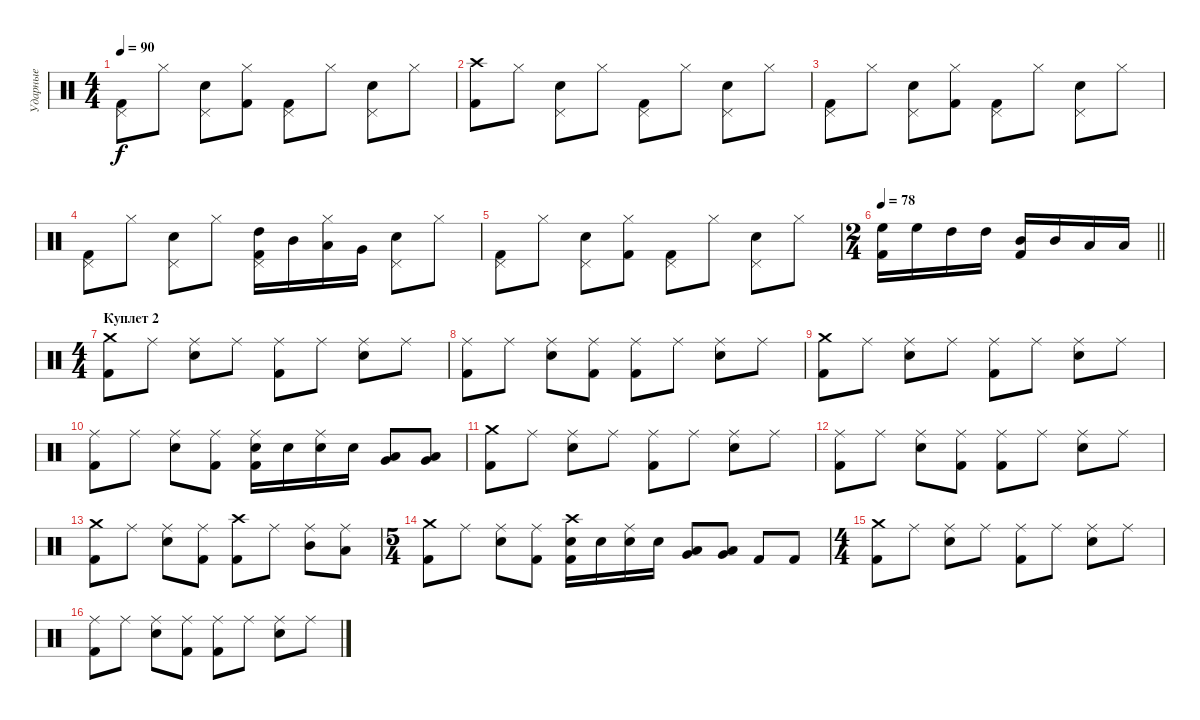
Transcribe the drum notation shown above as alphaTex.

\track ("Ударные" "Ударные") {instrument percussion}
\staff {score}
\articulation defaults
\ts (4 4)
\tempo 90
\clef neutral
\ks c
("Pedal Hi-Hat (hit)" "Kick (hit) 2").8{dy f} "Hi-Hat (closed)".8 ("Pedal Hi-Hat (hit)" "Snare (hit) 2").8 ("Hi-Hat (closed)" "Kick (hit) 2").8 ("Pedal Hi-Hat (hit)" "Kick (hit) 2").8 "Hi-Hat (closed)".8 ("Pedal Hi-Hat (hit)" "Snare (hit) 2").8 "Hi-Hat (closed)".8 |
("Crash high (hit)" "Kick (hit) 2").8 "Hi-Hat (closed)".8 ("Pedal Hi-Hat (hit)" "Snare (hit) 2").8 "Hi-Hat (closed)".8 ("Pedal Hi-Hat (hit)" "Kick (hit) 2").8 "Hi-Hat (closed)".8 ("Pedal Hi-Hat (hit)" "Snare (hit) 2").8 "Hi-Hat (closed)".8 |
("Pedal Hi-Hat (hit)" "Kick (hit) 2").8 "Hi-Hat (closed)".8 ("Pedal Hi-Hat (hit)" "Snare (hit) 2").8 ("Hi-Hat (closed)" "Kick (hit) 2").8 ("Pedal Hi-Hat (hit)" "Kick (hit) 2").8 "Hi-Hat (closed)".8 ("Pedal Hi-Hat (hit)" "Snare (hit) 2").8 "Hi-Hat (closed)".8 |
("Pedal Hi-Hat (hit)" "Kick (hit) 2").8 "Hi-Hat (closed)".8 ("Pedal Hi-Hat (hit)" "Snare (hit) 2").8 "Hi-Hat (closed)".8 ("Pedal Hi-Hat (hit)" "High Tom (hit)" "Kick (hit) 2").16 "Mid Tom (hit)".16 ("Hi-Hat (closed)" "Low Tom (hit)").16 "Very Low Tom (hit)".16 ("Pedal Hi-Hat (hit)" "Snare (hit) 2").8 "Hi-Hat (closed)".8 |
("Pedal Hi-Hat (hit)" "Kick (hit) 2").8 "Hi-Hat (closed)".8 ("Pedal Hi-Hat (hit)" "Snare (hit) 2").8 ("Hi-Hat (closed)" "Kick (hit) 2").8 ("Pedal Hi-Hat (hit)" "Kick (hit) 2").8 "Hi-Hat (closed)".8 ("Pedal Hi-Hat (hit)" "Snare (hit) 2").8 "Hi-Hat (closed)".8 |
\ts (2 4)
\tempo 78
\barLineRight lightlight
("High Floor Tom (hit)" "Kick (hit) 2").16 "High Floor Tom (hit)".16 "High Tom (hit)".16 "High Tom (hit)".16 ("Mid Tom (hit)" "Kick (hit) 2").16 "Mid Tom (hit)".16 "Low Tom (hit)".16 "Low Tom (hit)".16 |
\ts (4 4)
\section ("" "Куплет 2")
("Crash medium (hit)" "Kick (hit) 2").8 "Ride (middle)".8 ("Ride (middle)" "Snare (hit) 2").8 "Ride (middle)".8 ("Ride (middle)" "Kick (hit) 2").8 "Ride (middle)".8 ("Ride (middle)" "Snare (hit) 2").8 "Ride (middle)".8 |
("Ride (middle)" "Kick (hit) 2").8 "Ride (middle)".8 ("Ride (middle)" "Snare (hit) 2").8 ("Ride (middle)" "Kick (hit) 2").8 ("Ride (middle)" "Kick (hit) 2").8 "Ride (middle)".8 ("Ride (middle)" "Snare (hit) 2").8 "Ride (middle)".8 |
("Crash medium (hit)" "Kick (hit) 2").8 "Ride (middle)".8 ("Ride (middle)" "Snare (hit) 2").8 "Ride (middle)".8 ("Ride (middle)" "Kick (hit) 2").8 "Ride (middle)".8 ("Ride (middle)" "Snare (hit) 2").8 "Ride (middle)".8 |
("Ride (middle)" "Kick (hit) 2").8 "Ride (middle)".8 ("Ride (middle)" "Snare (hit) 2").8 ("Ride (middle)" "Kick (hit) 2").8 ("Ride (middle)" "Snare (hit) 2" "Kick (hit) 2").16 "Snare (hit) 2".16 ("Ride (middle)" "Snare (hit) 2").16 "Snare (hit) 2".16 ("Very Low Tom (hit)" "Low Floor Tom (hit)").8 ("Very Low Tom (hit)" "Low Floor Tom (hit)").8 |
("Crash medium (hit)" "Kick (hit) 2").8 "Ride (middle)".8 ("Ride (middle)" "Snare (hit) 2").8 "Ride (middle)".8 ("Ride (middle)" "Kick (hit) 2").8 "Ride (middle)".8 ("Ride (middle)" "Snare (hit) 2").8 "Ride (middle)".8 |
("Ride (middle)" "Kick (hit) 2").8 "Ride (middle)".8 ("Ride (middle)" "Snare (hit) 2").8 ("Ride (middle)" "Kick (hit) 2").8 ("Ride (middle)" "Kick (hit) 2").8 "Ride (middle)".8 ("Ride (middle)" "Snare (hit) 2").8 "Ride (middle)".8 |
("Crash medium (hit)" "Kick (hit) 2").8 "Ride (middle)".8 ("Ride (middle)" "Snare (hit) 2").8 ("Ride (middle)" "Kick (hit) 2").8 ("Crash high (hit)" "Kick (hit) 2").8 "Ride (middle)".8 ("Ride (middle)" "Mid Tom (hit)").8 ("Ride (middle)" "Low Tom (hit)").8 |
\ts (5 4)
("Crash medium (hit)" "Kick (hit) 2").8 "Ride (middle)".8 ("Ride (middle)" "Snare (hit) 2").8 ("Ride (middle)" "Kick (hit) 2").8 ("Crash high (hit)" "Snare (hit) 2" "Kick (hit) 2").16 "Snare (hit) 2".16 ("Ride (middle)" "Snare (hit) 2").16 "Snare (hit) 2".16 ("Very Low Tom (hit)" "Low Floor Tom (hit)").8 ("Very Low Tom (hit)" "Low Floor Tom (hit)").8 "Kick (hit) 2".8 "Kick (hit) 2".8 |
\ts (4 4)
("Crash medium (hit)" "Kick (hit) 2").8 "Ride (middle)".8 ("Ride (middle)" "Snare (hit) 2").8 "Ride (middle)".8 ("Ride (middle)" "Kick (hit) 2").8 "Ride (middle)".8 ("Ride (middle)" "Snare (hit) 2").8 "Ride (middle)".8 |
("Ride (middle)" "Kick (hit) 2").8 "Ride (middle)".8 ("Ride (middle)" "Snare (hit) 2").8 ("Ride (middle)" "Kick (hit) 2").8 ("Ride (middle)" "Kick (hit) 2").8 "Ride (middle)".8 ("Ride (middle)" "Snare (hit) 2").8 "Ride (middle)".8
